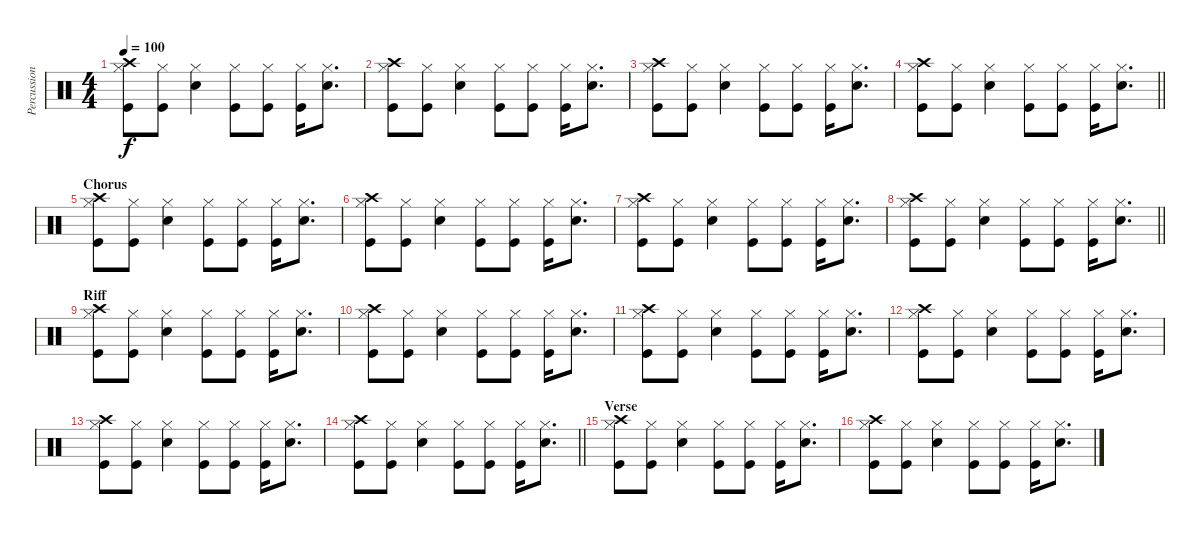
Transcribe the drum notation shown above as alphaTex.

\track ("Percussion" "Percussion") {instrument percussion}
\staff {score}
\articulation defaults
\ts (4 4)
\tempo 100
\clef neutral
\ks c
("Crash high (hit)" "Kick (hit)" "Hi-Hat (closed)").8{dy f} ("Kick (hit)" "Hi-Hat (closed)").8 ("Snare (hit) 2" "Hi-Hat (closed)").4 ("Kick (hit)" "Hi-Hat (closed)").8 ("Kick (hit)" "Hi-Hat (closed)").8 ("Kick (hit)" "Hi-Hat (closed)").16 ("Snare (hit) 2" "Hi-Hat (closed)").8{d} |
("Crash high (hit)" "Kick (hit)" "Hi-Hat (closed)").8 ("Kick (hit)" "Hi-Hat (closed)").8 ("Snare (hit) 2" "Hi-Hat (closed)").4 ("Kick (hit)" "Hi-Hat (closed)").8 ("Kick (hit)" "Hi-Hat (closed)").8 ("Kick (hit)" "Hi-Hat (closed)").16 ("Snare (hit) 2" "Hi-Hat (closed)").8{d} |
("Crash high (hit)" "Kick (hit)" "Hi-Hat (closed)").8 ("Kick (hit)" "Hi-Hat (closed)").8 ("Snare (hit) 2" "Hi-Hat (closed)").4 ("Kick (hit)" "Hi-Hat (closed)").8 ("Kick (hit)" "Hi-Hat (closed)").8 ("Kick (hit)" "Hi-Hat (closed)").16 ("Snare (hit) 2" "Hi-Hat (closed)").8{d} |
\barLineRight lightlight
("Crash high (hit)" "Kick (hit)" "Hi-Hat (closed)").8 ("Kick (hit)" "Hi-Hat (closed)").8 ("Snare (hit) 2" "Hi-Hat (closed)").4 ("Kick (hit)" "Hi-Hat (closed)").8 ("Kick (hit)" "Hi-Hat (closed)").8 ("Kick (hit)" "Hi-Hat (closed)").16 ("Snare (hit) 2" "Hi-Hat (closed)").8{d} |
\section ("" "Chorus")
("Crash high (hit)" "Kick (hit)" "Hi-Hat (closed)").8 ("Kick (hit)" "Hi-Hat (closed)").8 ("Snare (hit) 2" "Hi-Hat (closed)").4 ("Kick (hit)" "Hi-Hat (closed)").8 ("Kick (hit)" "Hi-Hat (closed)").8 ("Kick (hit)" "Hi-Hat (closed)").16 ("Snare (hit) 2" "Hi-Hat (closed)").8{d} |
("Crash high (hit)" "Kick (hit)" "Hi-Hat (closed)").8 ("Kick (hit)" "Hi-Hat (closed)").8 ("Snare (hit) 2" "Hi-Hat (closed)").4 ("Kick (hit)" "Hi-Hat (closed)").8 ("Kick (hit)" "Hi-Hat (closed)").8 ("Kick (hit)" "Hi-Hat (closed)").16 ("Snare (hit) 2" "Hi-Hat (closed)").8{d} |
("Crash high (hit)" "Kick (hit)" "Hi-Hat (closed)").8 ("Kick (hit)" "Hi-Hat (closed)").8 ("Snare (hit) 2" "Hi-Hat (closed)").4 ("Kick (hit)" "Hi-Hat (closed)").8 ("Kick (hit)" "Hi-Hat (closed)").8 ("Kick (hit)" "Hi-Hat (closed)").16 ("Snare (hit) 2" "Hi-Hat (closed)").8{d} |
\barLineRight lightlight
("Crash high (hit)" "Kick (hit)" "Hi-Hat (closed)").8 ("Kick (hit)" "Hi-Hat (closed)").8 ("Snare (hit) 2" "Hi-Hat (closed)").4 ("Kick (hit)" "Hi-Hat (closed)").8 ("Kick (hit)" "Hi-Hat (closed)").8 ("Kick (hit)" "Hi-Hat (closed)").16 ("Snare (hit) 2" "Hi-Hat (closed)").8{d} |
\section ("" "Riff")
("Crash high (hit)" "Kick (hit)" "Hi-Hat (closed)").8 ("Kick (hit)" "Hi-Hat (closed)").8 ("Snare (hit) 2" "Hi-Hat (closed)").4 ("Kick (hit)" "Hi-Hat (closed)").8 ("Kick (hit)" "Hi-Hat (closed)").8 ("Kick (hit)" "Hi-Hat (closed)").16 ("Snare (hit) 2" "Hi-Hat (closed)").8{d} |
("Crash high (hit)" "Kick (hit)" "Hi-Hat (closed)").8 ("Kick (hit)" "Hi-Hat (closed)").8 ("Snare (hit) 2" "Hi-Hat (closed)").4 ("Kick (hit)" "Hi-Hat (closed)").8 ("Kick (hit)" "Hi-Hat (closed)").8 ("Kick (hit)" "Hi-Hat (closed)").16 ("Snare (hit) 2" "Hi-Hat (closed)").8{d} |
("Crash high (hit)" "Kick (hit)" "Hi-Hat (closed)").8 ("Kick (hit)" "Hi-Hat (closed)").8 ("Snare (hit) 2" "Hi-Hat (closed)").4 ("Kick (hit)" "Hi-Hat (closed)").8 ("Kick (hit)" "Hi-Hat (closed)").8 ("Kick (hit)" "Hi-Hat (closed)").16 ("Snare (hit) 2" "Hi-Hat (closed)").8{d} |
("Crash high (hit)" "Kick (hit)" "Hi-Hat (closed)").8 ("Kick (hit)" "Hi-Hat (closed)").8 ("Snare (hit) 2" "Hi-Hat (closed)").4 ("Kick (hit)" "Hi-Hat (closed)").8 ("Kick (hit)" "Hi-Hat (closed)").8 ("Kick (hit)" "Hi-Hat (closed)").16 ("Snare (hit) 2" "Hi-Hat (closed)").8{d} |
("Crash high (hit)" "Kick (hit)" "Hi-Hat (closed)").8 ("Kick (hit)" "Hi-Hat (closed)").8 ("Snare (hit) 2" "Hi-Hat (closed)").4 ("Kick (hit)" "Hi-Hat (closed)").8 ("Kick (hit)" "Hi-Hat (closed)").8 ("Kick (hit)" "Hi-Hat (closed)").16 ("Snare (hit) 2" "Hi-Hat (closed)").8{d} |
\barLineRight lightlight
("Crash high (hit)" "Kick (hit)" "Hi-Hat (closed)").8 ("Kick (hit)" "Hi-Hat (closed)").8 ("Snare (hit) 2" "Hi-Hat (closed)").4 ("Kick (hit)" "Hi-Hat (closed)").8 ("Kick (hit)" "Hi-Hat (closed)").8 ("Kick (hit)" "Hi-Hat (closed)").16 ("Snare (hit) 2" "Hi-Hat (closed)").8{d} |
\section ("" "Verse")
("Crash high (hit)" "Kick (hit)" "Hi-Hat (closed)").8 ("Kick (hit)" "Hi-Hat (closed)").8 ("Snare (hit) 2" "Hi-Hat (closed)").4 ("Kick (hit)" "Hi-Hat (closed)").8 ("Kick (hit)" "Hi-Hat (closed)").8 ("Kick (hit)" "Hi-Hat (closed)").16 ("Snare (hit) 2" "Hi-Hat (closed)").8{d} |
("Crash high (hit)" "Kick (hit)" "Hi-Hat (closed)").8 ("Kick (hit)" "Hi-Hat (closed)").8 ("Snare (hit) 2" "Hi-Hat (closed)").4 ("Kick (hit)" "Hi-Hat (closed)").8 ("Kick (hit)" "Hi-Hat (closed)").8 ("Kick (hit)" "Hi-Hat (closed)").16 ("Snare (hit) 2" "Hi-Hat (closed)").8{d}
